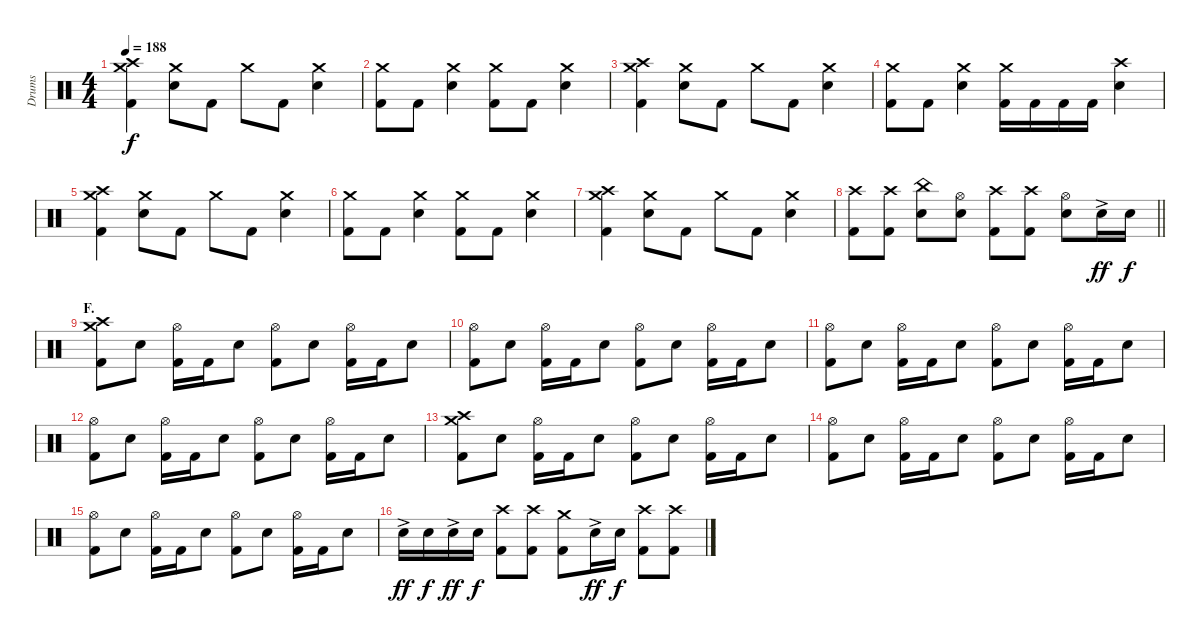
\track ("Drums" "Drums") {instrument percussion}
\staff {score}
\articulation defaults
\ts (4 4)
\tempo 188
\clef neutral
\ks c
("Crash medium (hit)" "Crash high (hit)" "Kick (hit) 2").4{dy f} ("Crash medium (hit)" "Electric Snare (hit)").8 "Kick (hit) 2".8 "Crash medium (hit)".8 "Kick (hit) 2".8 ("Crash medium (hit)" "Electric Snare (hit)").4 |
("Crash medium (hit)" "Kick (hit) 2").8 "Kick (hit) 2".8 ("Crash medium (hit)" "Electric Snare (hit)").4 ("Crash medium (hit)" "Kick (hit) 2").8 "Kick (hit) 2".8 ("Crash medium (hit)" "Electric Snare (hit)").4 |
("Crash medium (hit)" "Crash high (hit)" "Kick (hit) 2").4 ("Crash medium (hit)" "Electric Snare (hit)").8 "Kick (hit) 2".8 "Crash medium (hit)".8 "Kick (hit) 2".8 ("Crash medium (hit)" "Electric Snare (hit)").4 |
("Crash medium (hit)" "Kick (hit) 2").8 "Kick (hit) 2".8 ("Crash medium (hit)" "Electric Snare (hit)").4 ("Crash medium (hit)" "Kick (hit) 2").16 "Kick (hit) 2".16 "Kick (hit) 2".16 "Kick (hit) 2".16 ("Crash high (hit)" "Electric Snare (hit)").4 |
("Crash medium (hit)" "Crash high (hit)" "Kick (hit) 2").4 ("Crash medium (hit)" "Electric Snare (hit)").8 "Kick (hit) 2".8 "Crash medium (hit)".8 "Kick (hit) 2".8 ("Crash medium (hit)" "Electric Snare (hit)").4 |
("Crash medium (hit)" "Kick (hit) 2").8 "Kick (hit) 2".8 ("Crash medium (hit)" "Electric Snare (hit)").4 ("Crash medium (hit)" "Kick (hit) 2").8 "Kick (hit) 2".8 ("Crash medium (hit)" "Electric Snare (hit)").4 |
("Crash medium (hit)" "Crash high (hit)" "Kick (hit) 2").4 ("Crash medium (hit)" "Electric Snare (hit)").8 "Kick (hit) 2".8 "Crash medium (hit)".8 "Kick (hit) 2".8 ("Crash medium (hit)" "Electric Snare (hit)").4 |
\barLineRight lightlight
("Crash high (hit)" "Kick (hit) 2").8 ("Crash high (hit)" "Kick (hit) 2").8 ("China (hit)" "Electric Snare (hit)").8 ("Hi-Hat (open)" "Electric Snare (hit)").8 ("Crash high (hit)" "Kick (hit) 2").8 ("Crash high (hit)" "Kick (hit) 2").8 ("Hi-Hat (open)" "Electric Snare (hit)").8 "Electric Snare (hit)"{ac}.16{dy ff} "Electric Snare (hit)".16{dy f} |
\section ("" "F.")
("Crash medium (hit)" "Crash high (hit)" "Kick (hit) 2").8 "Electric Snare (hit)".8 ("Hi-Hat (open)" "Kick (hit) 2").16 "Kick (hit) 2".16 "Electric Snare (hit)".8 ("Hi-Hat (open)" "Kick (hit) 2").8 "Electric Snare (hit)".8 ("Hi-Hat (open)" "Kick (hit) 2").16 "Kick (hit) 2".16 "Electric Snare (hit)".8 |
("Hi-Hat (open)" "Kick (hit) 2").8 "Electric Snare (hit)".8 ("Hi-Hat (open)" "Kick (hit) 2").16 "Kick (hit) 2".16 "Electric Snare (hit)".8 ("Hi-Hat (open)" "Kick (hit) 2").8 "Electric Snare (hit)".8 ("Hi-Hat (open)" "Kick (hit) 2").16 "Kick (hit) 2".16 "Electric Snare (hit)".8 |
("Hi-Hat (open)" "Kick (hit) 2").8 "Electric Snare (hit)".8 ("Hi-Hat (open)" "Kick (hit) 2").16 "Kick (hit) 2".16 "Electric Snare (hit)".8 ("Hi-Hat (open)" "Kick (hit) 2").8 "Electric Snare (hit)".8 ("Hi-Hat (open)" "Kick (hit) 2").16 "Kick (hit) 2".16 "Electric Snare (hit)".8 |
("Hi-Hat (open)" "Kick (hit) 2").8 "Electric Snare (hit)".8 ("Hi-Hat (open)" "Kick (hit) 2").16 "Kick (hit) 2".16 "Electric Snare (hit)".8 ("Hi-Hat (open)" "Kick (hit) 2").8 "Electric Snare (hit)".8 ("Hi-Hat (open)" "Kick (hit) 2").16 "Kick (hit) 2".16 "Electric Snare (hit)".8 |
("Crash medium (hit)" "Crash high (hit)" "Kick (hit) 2").8 "Electric Snare (hit)".8 ("Hi-Hat (open)" "Kick (hit) 2").16 "Kick (hit) 2".16 "Electric Snare (hit)".8 ("Hi-Hat (open)" "Kick (hit) 2").8 "Electric Snare (hit)".8 ("Hi-Hat (open)" "Kick (hit) 2").16 "Kick (hit) 2".16 "Electric Snare (hit)".8 |
("Hi-Hat (open)" "Kick (hit) 2").8 "Electric Snare (hit)".8 ("Hi-Hat (open)" "Kick (hit) 2").16 "Kick (hit) 2".16 "Electric Snare (hit)".8 ("Hi-Hat (open)" "Kick (hit) 2").8 "Electric Snare (hit)".8 ("Hi-Hat (open)" "Kick (hit) 2").16 "Kick (hit) 2".16 "Electric Snare (hit)".8 |
("Hi-Hat (open)" "Kick (hit) 2").8 "Electric Snare (hit)".8 ("Hi-Hat (open)" "Kick (hit) 2").16 "Kick (hit) 2".16 "Electric Snare (hit)".8 ("Hi-Hat (open)" "Kick (hit) 2").8 "Electric Snare (hit)".8 ("Hi-Hat (open)" "Kick (hit) 2").16 "Kick (hit) 2".16 "Electric Snare (hit)".8 |
"Electric Snare (hit)"{ac}.16{dy ff} "Electric Snare (hit)".16{dy f} "Electric Snare (hit)"{ac}.16{dy ff} "Electric Snare (hit)".16{dy f} ("Crash high (hit)" "Kick (hit) 2").8 ("Crash high (hit)" "Kick (hit) 2").8 ("Crash medium (hit)" "Kick (hit) 2").8 "Electric Snare (hit)"{ac}.16{dy ff} "Electric Snare (hit)".16{dy f} ("Crash high (hit)" "Kick (hit) 2").8 ("Crash high (hit)" "Kick (hit) 2").8
